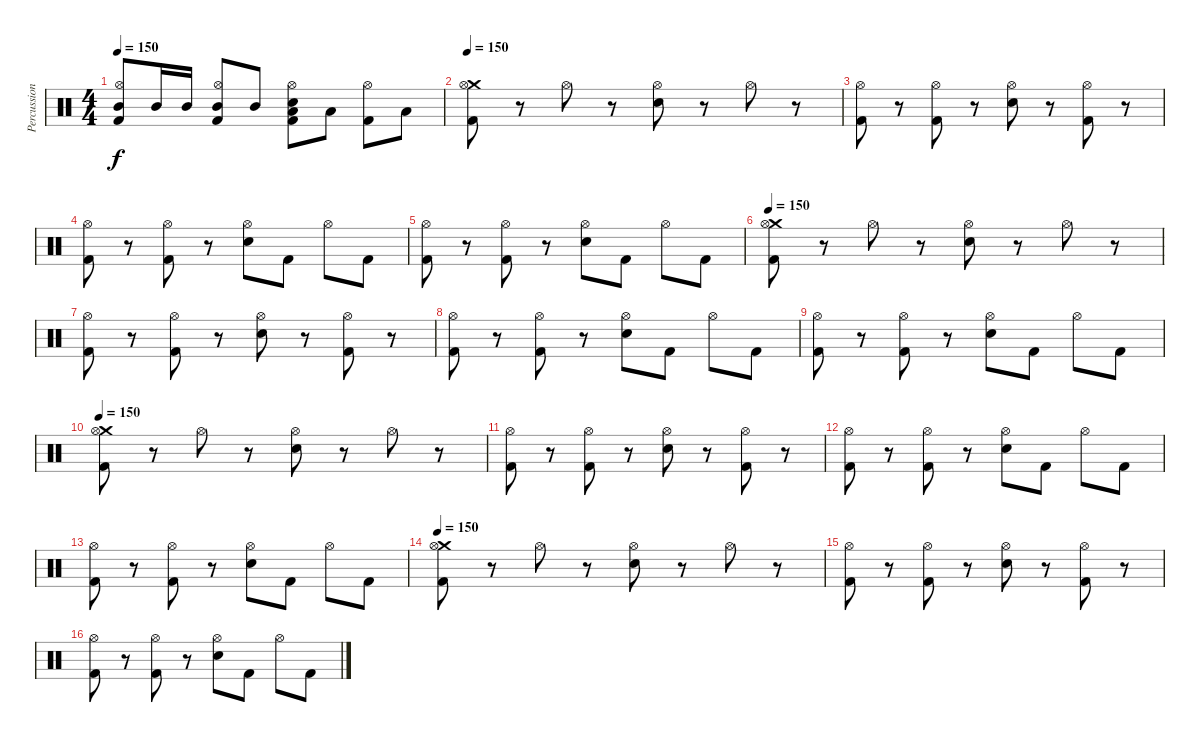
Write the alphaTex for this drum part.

\track ("Percussion" "Percussion") {instrument percussion}
\staff {score}
\articulation defaults
\ts (4 4)
\tempo 150
\clef neutral
\ks c
("Mid Tom (hit)" "Hi-Hat (open)" "Kick (hit) 2").8{dy f} "Mid Tom (hit)".16 "Mid Tom (hit)".16 ("Mid Tom (hit)" "Hi-Hat (open)" "Kick (hit) 2").8 "Mid Tom (hit)".8 ("Low Tom (hit)" "Hi-Hat (open)" "Electric Snare (hit)" "Kick (hit) 2").8 "Low Tom (hit)".8 ("Hi-Hat (open)" "Kick (hit) 2").8 "Low Tom (hit)".8 |
\tempo 150
("Crash medium (hit)" "Hi-Hat (open)" "Kick (hit) 2").8 r.8 "Hi-Hat (open)".8 r.8 ("Hi-Hat (open)" "Electric Snare (hit)").8 r.8 "Hi-Hat (open)".8 r.8 |
("Hi-Hat (open)" "Kick (hit) 2").8 r.8 ("Hi-Hat (open)" "Kick (hit) 2").8 r.8 ("Hi-Hat (open)" "Electric Snare (hit)").8 r.8 ("Hi-Hat (open)" "Kick (hit) 2").8 r.8 |
("Hi-Hat (open)" "Kick (hit) 2").8 r.8 ("Hi-Hat (open)" "Kick (hit) 2").8 r.8 ("Hi-Hat (open)" "Electric Snare (hit)").8 "Kick (hit) 2".8 "Hi-Hat (open)".8 "Kick (hit) 2".8 |
("Hi-Hat (open)" "Kick (hit) 2").8 r.8 ("Hi-Hat (open)" "Kick (hit) 2").8 r.8 ("Hi-Hat (open)" "Electric Snare (hit)").8 "Kick (hit) 2".8 "Hi-Hat (open)".8 "Kick (hit) 2".8 |
\tempo 150
("Crash medium (hit)" "Hi-Hat (open)" "Kick (hit) 2").8 r.8 "Hi-Hat (open)".8 r.8 ("Hi-Hat (open)" "Electric Snare (hit)").8 r.8 "Hi-Hat (open)".8 r.8 |
("Hi-Hat (open)" "Kick (hit) 2").8 r.8 ("Hi-Hat (open)" "Kick (hit) 2").8 r.8 ("Hi-Hat (open)" "Electric Snare (hit)").8 r.8 ("Hi-Hat (open)" "Kick (hit) 2").8 r.8 |
("Hi-Hat (open)" "Kick (hit) 2").8 r.8 ("Hi-Hat (open)" "Kick (hit) 2").8 r.8 ("Hi-Hat (open)" "Electric Snare (hit)").8 "Kick (hit) 2".8 "Hi-Hat (open)".8 "Kick (hit) 2".8 |
("Hi-Hat (open)" "Kick (hit) 2").8 r.8 ("Hi-Hat (open)" "Kick (hit) 2").8 r.8 ("Hi-Hat (open)" "Electric Snare (hit)").8 "Kick (hit) 2".8 "Hi-Hat (open)".8 "Kick (hit) 2".8 |
\tempo 150
("Crash medium (hit)" "Hi-Hat (open)" "Kick (hit) 2").8 r.8 "Hi-Hat (open)".8 r.8 ("Hi-Hat (open)" "Electric Snare (hit)").8 r.8 "Hi-Hat (open)".8 r.8 |
("Hi-Hat (open)" "Kick (hit) 2").8 r.8 ("Hi-Hat (open)" "Kick (hit) 2").8 r.8 ("Hi-Hat (open)" "Electric Snare (hit)").8 r.8 ("Hi-Hat (open)" "Kick (hit) 2").8 r.8 |
("Hi-Hat (open)" "Kick (hit) 2").8 r.8 ("Hi-Hat (open)" "Kick (hit) 2").8 r.8 ("Hi-Hat (open)" "Electric Snare (hit)").8 "Kick (hit) 2".8 "Hi-Hat (open)".8 "Kick (hit) 2".8 |
("Hi-Hat (open)" "Kick (hit) 2").8 r.8 ("Hi-Hat (open)" "Kick (hit) 2").8 r.8 ("Hi-Hat (open)" "Electric Snare (hit)").8 "Kick (hit) 2".8 "Hi-Hat (open)".8 "Kick (hit) 2".8 |
\tempo 150
("Crash medium (hit)" "Hi-Hat (open)" "Kick (hit) 2").8 r.8 "Hi-Hat (open)".8 r.8 ("Hi-Hat (open)" "Electric Snare (hit)").8 r.8 "Hi-Hat (open)".8 r.8 |
("Hi-Hat (open)" "Kick (hit) 2").8 r.8 ("Hi-Hat (open)" "Kick (hit) 2").8 r.8 ("Hi-Hat (open)" "Electric Snare (hit)").8 r.8 ("Hi-Hat (open)" "Kick (hit) 2").8 r.8 |
("Hi-Hat (open)" "Kick (hit) 2").8 r.8 ("Hi-Hat (open)" "Kick (hit) 2").8 r.8 ("Hi-Hat (open)" "Electric Snare (hit)").8 "Kick (hit) 2".8 "Hi-Hat (open)".8 "Kick (hit) 2".8
